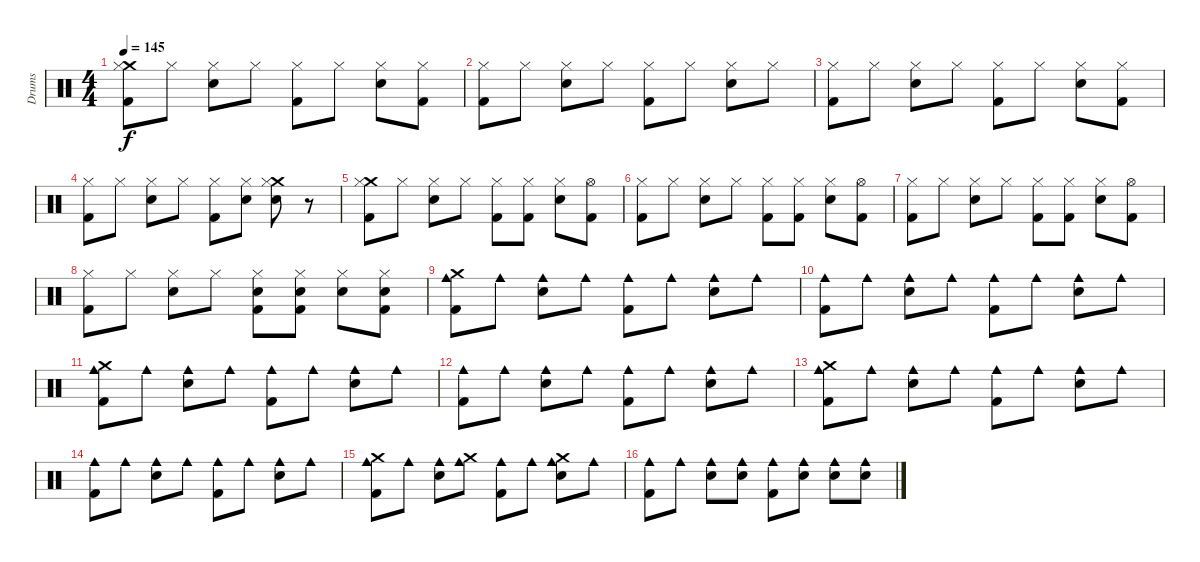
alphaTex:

\track ("Drums" "Drums") {instrument percussion}
\staff {score}
\articulation defaults
\ts (4 4)
\tempo 145
\clef neutral
\ks c
("Crash medium (hit)" "Hi-Hat (closed)" "Kick (hit) 2").8{dy f} "Hi-Hat (closed)".8 ("Hi-Hat (closed)" "Electric Snare (hit)").8 "Hi-Hat (closed)".8 ("Hi-Hat (closed)" "Kick (hit) 2").8 "Hi-Hat (closed)".8 ("Hi-Hat (closed)" "Electric Snare (hit)").8 ("Hi-Hat (closed)" "Kick (hit) 2").8 |
("Hi-Hat (closed)" "Kick (hit) 2").8 "Hi-Hat (closed)".8 ("Hi-Hat (closed)" "Electric Snare (hit)").8 "Hi-Hat (closed)".8 ("Hi-Hat (closed)" "Kick (hit) 2").8 "Hi-Hat (closed)".8 ("Hi-Hat (closed)" "Electric Snare (hit)").8 "Hi-Hat (closed)".8 |
("Hi-Hat (closed)" "Kick (hit) 2").8 "Hi-Hat (closed)".8 ("Hi-Hat (closed)" "Electric Snare (hit)").8 "Hi-Hat (closed)".8 ("Hi-Hat (closed)" "Kick (hit) 2").8 "Hi-Hat (closed)".8 ("Hi-Hat (closed)" "Electric Snare (hit)").8 ("Hi-Hat (closed)" "Kick (hit) 2").8 |
("Hi-Hat (closed)" "Kick (hit) 2").8 "Hi-Hat (closed)".8 ("Hi-Hat (closed)" "Electric Snare (hit)").8 "Hi-Hat (closed)".8 ("Hi-Hat (closed)" "Kick (hit) 2").8 ("Hi-Hat (closed)" "Electric Snare (hit)").8 ("Crash medium (hit)" "Hi-Hat (closed)" "Electric Snare (hit)").8 r.8 |
("Crash medium (hit)" "Hi-Hat (closed)" "Kick (hit) 2").8 "Hi-Hat (closed)".8 ("Hi-Hat (closed)" "Electric Snare (hit)").8 "Hi-Hat (closed)".8 ("Hi-Hat (closed)" "Kick (hit) 2").8 ("Hi-Hat (closed)" "Kick (hit) 2").8 ("Hi-Hat (closed)" "Electric Snare (hit)").8 ("Hi-Hat (open)" "Kick (hit) 2").8 |
("Hi-Hat (closed)" "Kick (hit) 2").8 "Hi-Hat (closed)".8 ("Hi-Hat (closed)" "Electric Snare (hit)").8 "Hi-Hat (closed)".8 ("Hi-Hat (closed)" "Kick (hit) 2").8 ("Hi-Hat (closed)" "Kick (hit) 2").8 ("Hi-Hat (closed)" "Electric Snare (hit)").8 ("Hi-Hat (open)" "Kick (hit) 2").8 |
("Hi-Hat (closed)" "Kick (hit) 2").8 "Hi-Hat (closed)".8 ("Hi-Hat (closed)" "Electric Snare (hit)").8 "Hi-Hat (closed)".8 ("Hi-Hat (closed)" "Kick (hit) 2").8 ("Hi-Hat (closed)" "Kick (hit) 2").8 ("Hi-Hat (closed)" "Electric Snare (hit)").8 ("Hi-Hat (open)" "Kick (hit) 2").8 |
("Hi-Hat (closed)" "Kick (hit) 2").8 "Hi-Hat (closed)".8 ("Hi-Hat (closed)" "Electric Snare (hit)").8 "Hi-Hat (closed)".8 ("Hi-Hat (closed)" "Electric Snare (hit)" "Kick (hit) 2").8 ("Hi-Hat (closed)" "Electric Snare (hit)" "Kick (hit) 2").8 ("Hi-Hat (closed)" "Electric Snare (hit)").8 ("Hi-Hat (closed)" "Electric Snare (hit)" "Kick (hit) 2").8 |
("Crash medium (hit)" "Cowbell medium (hit)" "Kick (hit) 2").8 "Cowbell medium (hit)".8 ("Cowbell medium (hit)" "Electric Snare (hit)").8 "Cowbell medium (hit)".8 ("Cowbell medium (hit)" "Kick (hit) 2").8 "Cowbell medium (hit)".8 ("Cowbell medium (hit)" "Electric Snare (hit)").8 "Cowbell medium (hit)".8 |
("Cowbell medium (hit)" "Kick (hit) 2").8 "Cowbell medium (hit)".8 ("Cowbell medium (hit)" "Electric Snare (hit)").8 "Cowbell medium (hit)".8 ("Cowbell medium (hit)" "Kick (hit) 2").8 "Cowbell medium (hit)".8 ("Cowbell medium (hit)" "Electric Snare (hit)").8 "Cowbell medium (hit)".8 |
("Crash medium (hit)" "Cowbell medium (hit)" "Kick (hit) 2").8 "Cowbell medium (hit)".8 ("Cowbell medium (hit)" "Electric Snare (hit)").8 "Cowbell medium (hit)".8 ("Cowbell medium (hit)" "Kick (hit) 2").8 "Cowbell medium (hit)".8 ("Cowbell medium (hit)" "Electric Snare (hit)").8 "Cowbell medium (hit)".8 |
("Cowbell medium (hit)" "Kick (hit) 2").8 "Cowbell medium (hit)".8 ("Cowbell medium (hit)" "Electric Snare (hit)").8 "Cowbell medium (hit)".8 ("Cowbell medium (hit)" "Kick (hit) 2").8 "Cowbell medium (hit)".8 ("Cowbell medium (hit)" "Electric Snare (hit)").8 "Cowbell medium (hit)".8 |
("Crash medium (hit)" "Cowbell medium (hit)" "Kick (hit) 2").8 "Cowbell medium (hit)".8 ("Cowbell medium (hit)" "Electric Snare (hit)").8 "Cowbell medium (hit)".8 ("Cowbell medium (hit)" "Kick (hit) 2").8 "Cowbell medium (hit)".8 ("Cowbell medium (hit)" "Electric Snare (hit)").8 "Cowbell medium (hit)".8 |
("Cowbell medium (hit)" "Kick (hit) 2").8 "Cowbell medium (hit)".8 ("Cowbell medium (hit)" "Electric Snare (hit)").8 "Cowbell medium (hit)".8 ("Cowbell medium (hit)" "Kick (hit) 2").8 "Cowbell medium (hit)".8 ("Cowbell medium (hit)" "Electric Snare (hit)").8 "Cowbell medium (hit)".8 |
("Crash medium (hit)" "Cowbell medium (hit)" "Kick (hit) 2").8 "Cowbell medium (hit)".8 ("Cowbell medium (hit)" "Electric Snare (hit)").8 ("Crash medium (hit)" "Cowbell medium (hit)").8 ("Cowbell medium (hit)" "Kick (hit) 2").8 "Cowbell medium (hit)".8 ("Crash medium (hit)" "Cowbell medium (hit)" "Electric Snare (hit)").8 "Cowbell medium (hit)".8 |
("Cowbell medium (hit)" "Kick (hit) 2").8 "Cowbell medium (hit)".8 ("Cowbell medium (hit)" "Electric Snare (hit)").8 ("Cowbell medium (hit)" "Electric Snare (hit)").8 ("Cowbell medium (hit)" "Kick (hit) 2").8 ("Cowbell medium (hit)" "Electric Snare (hit)").8 ("Cowbell medium (hit)" "Electric Snare (hit)").8 ("Cowbell medium (hit)" "Electric Snare (hit)").8
